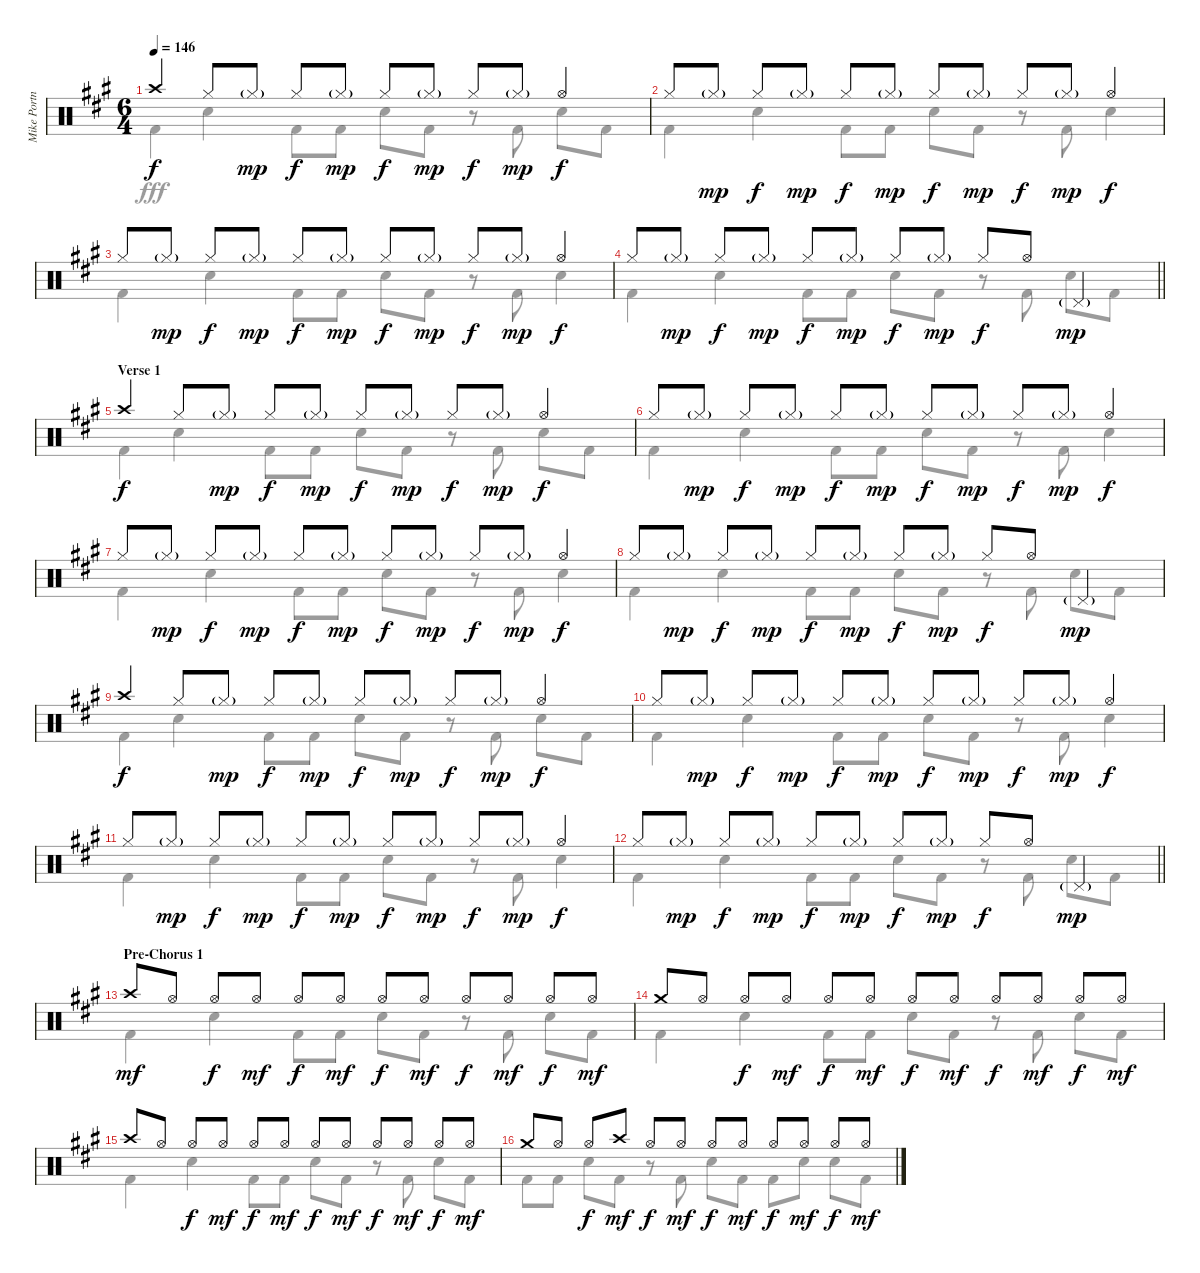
\track ("Mike Portnoy Drums" "Mike Portn") {instrument percussion}
\staff {score}
\articulation defaults
\voice
\ts (6 4)
\tempo 146
\clef neutral
\ks f#minor "Crash high (hit)".4{dy f} "Hi-Hat (closed)".8 "Hi-Hat (closed)"{g}.8{dy mp} "Hi-Hat (closed)".8{dy f} "Hi-Hat (closed)"{g}.8{dy mp} "Hi-Hat (closed)".8{dy f} "Hi-Hat (closed)"{g}.8{dy mp} "Hi-Hat (closed)".8{dy f} "Hi-Hat (closed)"{g}.8{dy mp} "Hi-Hat (open)".4{dy f}
|
"Hi-Hat (closed)".8 "Hi-Hat (closed)"{g}.8{dy mp} "Hi-Hat (closed)".8{dy f} "Hi-Hat (closed)"{g}.8{dy mp} "Hi-Hat (closed)".8{dy f} "Hi-Hat (closed)"{g}.8{dy mp} "Hi-Hat (closed)".8{dy f} "Hi-Hat (closed)"{g}.8{dy mp} "Hi-Hat (closed)".8{dy f} "Hi-Hat (closed)"{g}.8{dy mp} "Hi-Hat (open)".4{dy f} |
"Hi-Hat (closed)".8 "Hi-Hat (closed)"{g}.8{dy mp} "Hi-Hat (closed)".8{dy f} "Hi-Hat (closed)"{g}.8{dy mp} "Hi-Hat (closed)".8{dy f} "Hi-Hat (closed)"{g}.8{dy mp} "Hi-Hat (closed)".8{dy f} "Hi-Hat (closed)"{g}.8{dy mp} "Hi-Hat (closed)".8{dy f} "Hi-Hat (closed)"{g}.8{dy mp} "Hi-Hat (open)".4{dy f} |
\barLineRight lightlight "Hi-Hat (closed)".8 "Hi-Hat (closed)"{g}.8{dy mp} "Hi-Hat (closed)".8{dy f} "Hi-Hat (closed)"{g}.8{dy mp} "Hi-Hat (closed)".8{dy f} "Hi-Hat (closed)"{g}.8{dy mp} "Hi-Hat (closed)".8{dy f} "Hi-Hat (closed)"{g}.8{dy mp} "Hi-Hat (closed)".8{dy f} "Hi-Hat (open)".8 "Pedal Hi-Hat (hit)"{g}.4{dy mp}
|
\section ("" "Verse 1")
"Crash high (hit)".4{dy f} "Hi-Hat (closed)".8 "Hi-Hat (closed)"{g}.8{dy mp} "Hi-Hat (closed)".8{dy f} "Hi-Hat (closed)"{g}.8{dy mp} "Hi-Hat (closed)".8{dy f} "Hi-Hat (closed)"{g}.8{dy mp} "Hi-Hat (closed)".8{dy f} "Hi-Hat (closed)"{g}.8{dy mp} "Hi-Hat (open)".4{dy f} |
"Hi-Hat (closed)".8 "Hi-Hat (closed)"{g}.8{dy mp} "Hi-Hat (closed)".8{dy f} "Hi-Hat (closed)"{g}.8{dy mp} "Hi-Hat (closed)".8{dy f} "Hi-Hat (closed)"{g}.8{dy mp} "Hi-Hat (closed)".8{dy f} "Hi-Hat (closed)"{g}.8{dy mp} "Hi-Hat (closed)".8{dy f} "Hi-Hat (closed)"{g}.8{dy mp} "Hi-Hat (open)".4{dy f} |
"Hi-Hat (closed)".8 "Hi-Hat (closed)"{g}.8{dy mp} "Hi-Hat (closed)".8{dy f} "Hi-Hat (closed)"{g}.8{dy mp} "Hi-Hat (closed)".8{dy f} "Hi-Hat (closed)"{g}.8{dy mp} "Hi-Hat (closed)".8{dy f} "Hi-Hat (closed)"{g}.8{dy mp} "Hi-Hat (closed)".8{dy f} "Hi-Hat (closed)"{g}.8{dy mp} "Hi-Hat (open)".4{dy f} |
"Hi-Hat (closed)".8 "Hi-Hat (closed)"{g}.8{dy mp} "Hi-Hat (closed)".8{dy f} "Hi-Hat (closed)"{g}.8{dy mp} "Hi-Hat (closed)".8{dy f} "Hi-Hat (closed)"{g}.8{dy mp} "Hi-Hat (closed)".8{dy f} "Hi-Hat (closed)"{g}.8{dy mp} "Hi-Hat (closed)".8{dy f} "Hi-Hat (open)".8 "Pedal Hi-Hat (hit)"{g}.4{dy mp} |
"Crash high (hit)".4{dy f} "Hi-Hat (closed)".8 "Hi-Hat (closed)"{g}.8{dy mp} "Hi-Hat (closed)".8{dy f} "Hi-Hat (closed)"{g}.8{dy mp} "Hi-Hat (closed)".8{dy f} "Hi-Hat (closed)"{g}.8{dy mp} "Hi-Hat (closed)".8{dy f} "Hi-Hat (closed)"{g}.8{dy mp} "Hi-Hat (open)".4{dy f} |
"Hi-Hat (closed)".8 "Hi-Hat (closed)"{g}.8{dy mp} "Hi-Hat (closed)".8{dy f} "Hi-Hat (closed)"{g}.8{dy mp} "Hi-Hat (closed)".8{dy f} "Hi-Hat (closed)"{g}.8{dy mp} "Hi-Hat (closed)".8{dy f} "Hi-Hat (closed)"{g}.8{dy mp} "Hi-Hat (closed)".8{dy f} "Hi-Hat (closed)"{g}.8{dy mp} "Hi-Hat (open)".4{dy f} |
"Hi-Hat (closed)".8 "Hi-Hat (closed)"{g}.8{dy mp} "Hi-Hat (closed)".8{dy f} "Hi-Hat (closed)"{g}.8{dy mp} "Hi-Hat (closed)".8{dy f} "Hi-Hat (closed)"{g}.8{dy mp} "Hi-Hat (closed)".8{dy f} "Hi-Hat (closed)"{g}.8{dy mp} "Hi-Hat (closed)".8{dy f} "Hi-Hat (closed)"{g}.8{dy mp} "Hi-Hat (open)".4{dy f} |
\barLineRight lightlight "Hi-Hat (closed)".8 "Hi-Hat (closed)"{g}.8{dy mp} "Hi-Hat (closed)".8{dy f} "Hi-Hat (closed)"{g}.8{dy mp} "Hi-Hat (closed)".8{dy f} "Hi-Hat (closed)"{g}.8{dy mp} "Hi-Hat (closed)".8{dy f} "Hi-Hat (closed)"{g}.8{dy mp} "Hi-Hat (closed)".8{dy f} "Hi-Hat (open)".8 "Pedal Hi-Hat (hit)"{g}.4{dy mp}
|
\section ("" "Pre-Chorus 1")
"Crash high (hit)".8{dy mf} "Hi-Hat (open)".8 "Hi-Hat (open)".8{dy f} "Hi-Hat (open)".8{dy mf} "Hi-Hat (open)".8{dy f} "Hi-Hat (open)".8{dy mf} "Hi-Hat (open)".8{dy f} "Hi-Hat (open)".8{dy mf} "Hi-Hat (open)".8{dy f} "Hi-Hat (open)".8{dy mf} "Hi-Hat (open)".8{dy f} "Hi-Hat (open)".8{dy mf} |
"Crash medium (hit)".8 "Hi-Hat (open)".8 "Hi-Hat (open)".8{dy f} "Hi-Hat (open)".8{dy mf} "Hi-Hat (open)".8{dy f} "Hi-Hat (open)".8{dy mf} "Hi-Hat (open)".8{dy f} "Hi-Hat (open)".8{dy mf} "Hi-Hat (open)".8{dy f} "Hi-Hat (open)".8{dy mf} "Hi-Hat (open)".8{dy f} "Hi-Hat (open)".8{dy mf} |
"Crash high (hit)".8 "Hi-Hat (open)".8 "Hi-Hat (open)".8{dy f} "Hi-Hat (open)".8{dy mf} "Hi-Hat (open)".8{dy f} "Hi-Hat (open)".8{dy mf} "Hi-Hat (open)".8{dy f} "Hi-Hat (open)".8{dy mf} "Hi-Hat (open)".8{dy f} "Hi-Hat (open)".8{dy mf} "Hi-Hat (open)".8{dy f} "Hi-Hat (open)".8{dy mf} |
"Crash medium (hit)".8 "Hi-Hat (open)".8 "Hi-Hat (open)".8{dy f} "Crash high (hit)".8{dy mf} "Hi-Hat (open)".8{dy f} "Hi-Hat (open)".8{dy mf} "Hi-Hat (open)".8{dy f} "Hi-Hat (open)".8{dy mf} "Hi-Hat (open)".8{dy f} "Hi-Hat (open)".8{dy mf} "Hi-Hat (open)".8{dy f} "Hi-Hat (open)".8{dy mf}
\voice
\clef neutral
\ottava regular
\simile none
\ks f#minor "Kick (hit) 2".4{dy fff} "Snare (hit) 2".4 "Kick (hit) 2".8 "Kick (hit) 2".8 "Snare (hit) 2".8 "Kick (hit) 2".8
r.8 "Kick (hit) 2".8 "Snare (hit) 2".8 "Kick (hit) 2".8 |
"Kick (hit) 2".4 "Snare (hit) 2".4 "Kick (hit) 2".8 "Kick (hit) 2".8 "Snare (hit) 2".8 "Kick (hit) 2".8 r.8 "Kick (hit) 2".8 "Snare (hit) 2".4 |
"Kick (hit) 2".4 "Snare (hit) 2".4 "Kick (hit) 2".8 "Kick (hit) 2".8 "Snare (hit) 2".8 "Kick (hit) 2".8 r.8 "Kick (hit) 2".8 "Snare (hit) 2".4 |
\barLineRight lightlight "Kick (hit) 2".4 "Snare (hit) 2".4 "Kick (hit) 2".8 "Kick (hit) 2".8 "Snare (hit) 2".8 "Kick (hit) 2".8
r.8 "Kick (hit) 2".8 "Snare (hit) 2".8 "Kick (hit) 2".8 |
"Kick (hit) 2".4 "Snare (hit) 2".4 "Kick (hit) 2".8 "Kick (hit) 2".8 "Snare (hit) 2".8 "Kick (hit) 2".8 r.8 "Kick (hit) 2".8 "Snare (hit) 2".8 "Kick (hit) 2".8 |
"Kick (hit) 2".4 "Snare (hit) 2".4 "Kick (hit) 2".8 "Kick (hit) 2".8 "Snare (hit) 2".8 "Kick (hit) 2".8 r.8 "Kick (hit) 2".8 "Snare (hit) 2".4 |
"Kick (hit) 2".4 "Snare (hit) 2".4 "Kick (hit) 2".8 "Kick (hit) 2".8 "Snare (hit) 2".8 "Kick (hit) 2".8 r.8 "Kick (hit) 2".8 "Snare (hit) 2".4 |
"Kick (hit) 2".4 "Snare (hit) 2".4 "Kick (hit) 2".8 "Kick (hit) 2".8 "Snare (hit) 2".8 "Kick (hit) 2".8 r.8 "Kick (hit) 2".8 "Snare (hit) 2".8 "Kick (hit) 2".8 |
"Kick (hit) 2".4 "Snare (hit) 2".4 "Kick (hit) 2".8 "Kick (hit) 2".8 "Snare (hit) 2".8 "Kick (hit) 2".8 r.8 "Kick (hit) 2".8 "Snare (hit) 2".8 "Kick (hit) 2".8 |
"Kick (hit) 2".4 "Snare (hit) 2".4 "Kick (hit) 2".8 "Kick (hit) 2".8 "Snare (hit) 2".8 "Kick (hit) 2".8 r.8 "Kick (hit) 2".8 "Snare (hit) 2".4 |
"Kick (hit) 2".4 "Snare (hit) 2".4 "Kick (hit) 2".8 "Kick (hit) 2".8 "Snare (hit) 2".8 "Kick (hit) 2".8 r.8 "Kick (hit) 2".8 "Snare (hit) 2".4 |
\barLineRight lightlight "Kick (hit) 2".4 "Snare (hit) 2".4 "Kick (hit) 2".8 "Kick (hit) 2".8 "Snare (hit) 2".8 "Kick (hit) 2".8
r.8 "Kick (hit) 2".8 "Snare (hit) 2".8 "Kick (hit) 2".8 |
"Kick (hit) 2".4 "Snare (hit) 2".4 "Kick (hit) 2".8 "Kick (hit) 2".8 "Snare (hit) 2".8 "Kick (hit) 2".8 r.8 "Kick (hit) 2".8 "Snare (hit) 2".8 "Kick (hit) 2".8 |
"Kick (hit) 2".4 "Snare (hit) 2".4 "Kick (hit) 2".8 "Kick (hit) 2".8 "Snare (hit) 2".8 "Kick (hit) 2".8 r.8 "Kick (hit) 2".8 "Snare (hit) 2".8 "Kick (hit) 2".8 |
"Kick (hit) 2".4 "Snare (hit) 2".4 "Kick (hit) 2".8 "Kick (hit) 2".8 "Snare (hit) 2".8 "Kick (hit) 2".8 r.8 "Kick (hit) 2".8 "Snare (hit) 2".8 "Kick (hit) 2".8 |
"Kick (hit) 2".8 "Kick (hit) 2".8 "Snare (hit) 2".8 "Kick (hit) 2".8 r.8 "Kick (hit) 2".8 "Snare (hit) 2".8 "Kick (hit) 2".8 "Kick (hit) 2".8 "Snare (hit) 2".8 "Snare (hit) 2".8 "Kick (hit) 2".8
